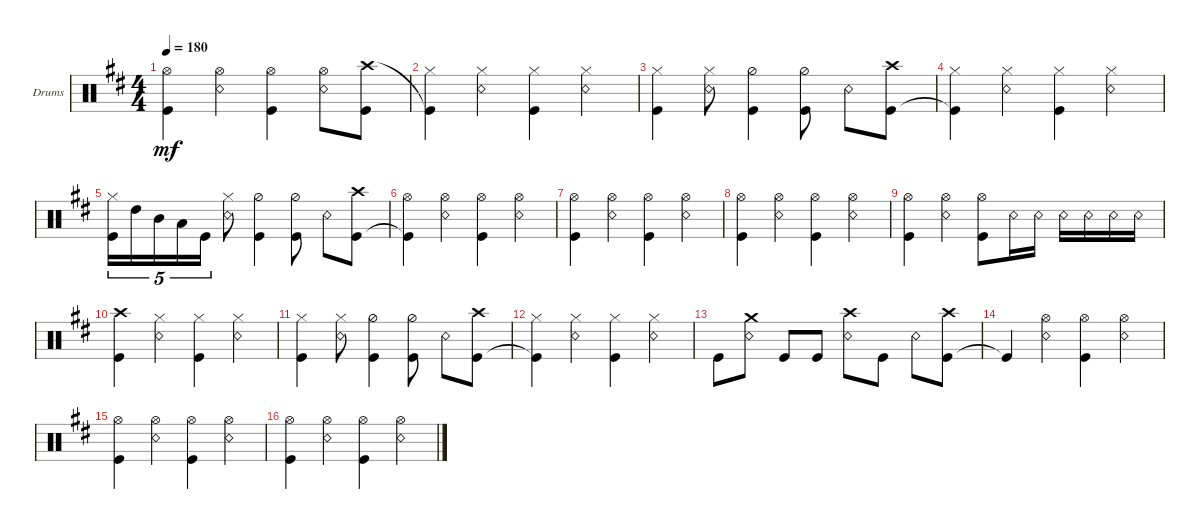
\defaultSystemsLayout 4
\bracketExtendMode groupsimilarinstruments
\firstSystemTrackNameOrientation horizontal
\otherSystemsTrackNameOrientation horizontal
\track ("Drumkit" "Drums") {instrument percussion}
\staff {score}
\articulation defaults
\ts (4 4)
\tempo 180
\clef neutral
\ks bminor
("Kick (hit)" "Hi-Hat (open)").4{dy mf} ("Hi-Hat (open)" "Snare (rim shot)").4 ("Hi-Hat (open)" "Kick (hit)").4 ("Hi-Hat (open)" "Snare (rim shot)").8 ("Crash high (hit)" "Kick (hit)").8 |
("Kick (hit)"{t} "Hi-Hat (closed)").4 ("Hi-Hat (closed)" "Snare (rim shot)").4 ("Hi-Hat (closed)" "Kick (hit)").4 ("Hi-Hat (closed)" "Snare (rim shot)").4 |
("Kick (hit)" "Hi-Hat (closed)").4 ("Hi-Hat (closed)" "Snare (rim shot)").8 ("Kick (hit)" "Hi-Hat (half)").4 ("Hi-Hat (half)" "Kick (hit)").8 "Snare (rim shot)".8 ("Kick (hit)" "Crash high (hit)").8 |
("Kick (hit)"{t} "Hi-Hat (closed)").4 ("Hi-Hat (closed)" "Snare (rim shot)").4 ("Hi-Hat (closed)" "Kick (hit)").4 ("Hi-Hat (closed)" "Snare (rim shot)").4 |
("Kick (hit)" "Hi-Hat (closed)").16{tu (5 4)} "High Tom (hit)".16{tu (5 4)} "Mid Tom (hit)".16{tu (5 4)} "Low Tom (hit)".16{tu (5 4)} "Kick (hit)".16{tu (5 4)} ("Hi-Hat (closed)" "Snare (rim shot)").8 ("Kick (hit)" "Hi-Hat (half)").4 ("Hi-Hat (half)" "Kick (hit)").8 "Snare (rim shot)".8 ("Kick (hit)" "Crash high (hit)").8 |
("Kick (hit)"{t} "Hi-Hat (open)").4 ("Hi-Hat (open)" "Snare (rim shot)").4 ("Hi-Hat (open)" "Kick (hit)").4 ("Hi-Hat (open)" "Snare (rim shot)").4 |
("Kick (hit)" "Hi-Hat (open)").4 ("Hi-Hat (open)" "Snare (rim shot)").4 ("Hi-Hat (open)" "Kick (hit)").4 ("Hi-Hat (open)" "Snare (rim shot)").4 |
("Kick (hit)" "Hi-Hat (open)").4 ("Hi-Hat (open)" "Snare (rim shot)").4 ("Hi-Hat (open)" "Kick (hit)").4 ("Hi-Hat (open)" "Snare (rim shot)").4 |
("Kick (hit)" "Hi-Hat (open)").4 ("Hi-Hat (open)" "Snare (rim shot)").4 ("Hi-Hat (open)" "Kick (hit)").8 "Snare (rim shot)".16 "Snare (rim shot)".16 "Snare (rim shot)".16 "Snare (rim shot)".16 "Snare (rim shot)".16 "Snare (rim shot)".16 |
("Kick (hit)" "Crash high (hit)").4 ("Hi-Hat (closed)" "Snare (rim shot)").4 ("Hi-Hat (closed)" "Kick (hit)").4 ("Hi-Hat (closed)" "Snare (rim shot)").4 |
("Kick (hit)" "Hi-Hat (closed)").4 ("Hi-Hat (closed)" "Snare (rim shot)").8 ("Kick (hit)" "Hi-Hat (half)").4 ("Hi-Hat (half)" "Kick (hit)").8 "Snare (rim shot)".8 ("Kick (hit)" "Crash high (hit)").8 |
("Kick (hit)"{t} "Hi-Hat (closed)").4 ("Hi-Hat (closed)" "Snare (rim shot)").4 ("Hi-Hat (closed)" "Kick (hit)").4 ("Hi-Hat (closed)" "Snare (rim shot)").4 |
"Kick (hit)".8 ("Snare (rim shot)" "Crash medium (hit)").8 "Kick (hit)".8 "Kick (hit)".8 ("Snare (rim shot)" "Crash high (hit)").8 "Kick (hit)".8 "Snare (rim shot)".8 ("Kick (hit)" "Crash high (hit)").8 |
"Kick (hit)"{t}.4 ("Hi-Hat (open)" "Snare (rim shot)").4 ("Hi-Hat (open)" "Kick (hit)").4 ("Hi-Hat (open)" "Snare (rim shot)").4 |
("Kick (hit)" "Hi-Hat (open)").4 ("Hi-Hat (open)" "Snare (rim shot)").4 ("Hi-Hat (open)" "Kick (hit)").4 ("Hi-Hat (open)" "Snare (rim shot)").4 |
("Kick (hit)" "Hi-Hat (open)").4 ("Hi-Hat (open)" "Snare (rim shot)").4 ("Hi-Hat (open)" "Kick (hit)").4 ("Hi-Hat (open)" "Snare (rim shot)").4
